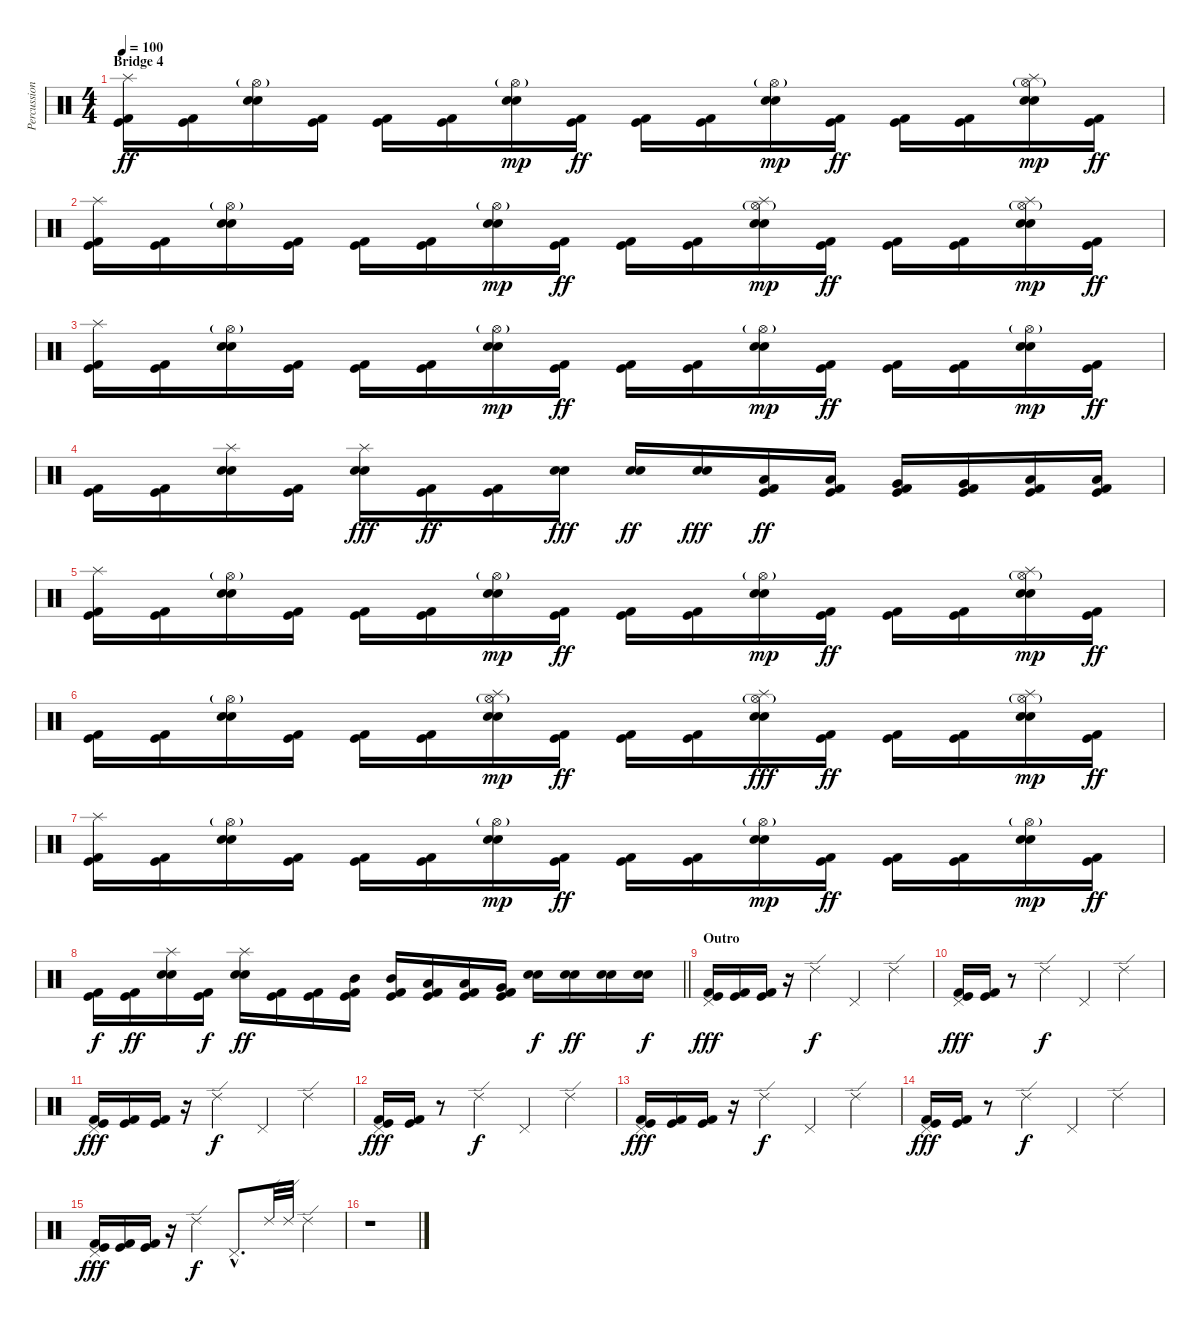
\track ("Percussion" "Percussion") {instrument percussion}
\staff {score}
\articulation defaults
\ts (4 4)
\section ("" "Bridge 4")
\tempo 100
\clef neutral
\ks c
("Splash (hit)" "Kick (hit)" "Kick (hit) 2").16{dy ff} ("Kick (hit)" "Kick (hit) 2").16 ("Hi-Hat (open)"{g} "Electric Snare (hit)" "Snare (hit) 2").16 ("Kick (hit)" "Kick (hit) 2").16 ("Kick (hit)" "Kick (hit) 2").16 ("Kick (hit)" "Kick (hit) 2").16 ("Hi-Hat (open)"{g} "Electric Snare (hit)" "Snare (hit) 2").16{dy mp} ("Kick (hit)" "Kick (hit) 2").16{dy ff} ("Kick (hit)" "Kick (hit) 2").16 ("Kick (hit)" "Kick (hit) 2").16 ("Hi-Hat (open)"{g} "Electric Snare (hit)" "Snare (hit) 2").16{dy mp} ("Kick (hit)" "Kick (hit) 2").16{dy ff} ("Kick (hit)" "Kick (hit) 2").16 ("Kick (hit)" "Kick (hit) 2").16 ("Hi-Hat (open)"{g} "Electric Snare (hit)" "Snare (hit) 2" "Splash (hit)").16{dy mp} ("Kick (hit)" "Kick (hit) 2").16{dy ff} |
("Splash (hit)" "Kick (hit)" "Kick (hit) 2").16 ("Kick (hit)" "Kick (hit) 2").16 ("Hi-Hat (open)"{g} "Electric Snare (hit)" "Snare (hit) 2").16 ("Kick (hit)" "Kick (hit) 2").16 ("Kick (hit)" "Kick (hit) 2").16 ("Kick (hit)" "Kick (hit) 2").16 ("Hi-Hat (open)"{g} "Electric Snare (hit)" "Snare (hit) 2").16{dy mp} ("Kick (hit)" "Kick (hit) 2").16{dy ff} ("Kick (hit)" "Kick (hit) 2").16 ("Kick (hit)" "Kick (hit) 2").16 ("Hi-Hat (open)"{g} "Electric Snare (hit)" "Snare (hit) 2" "Splash (hit)").16{dy mp} ("Kick (hit)" "Kick (hit) 2").16{dy ff} ("Kick (hit)" "Kick (hit) 2").16 ("Kick (hit)" "Kick (hit) 2").16 ("Hi-Hat (open)"{g} "Electric Snare (hit)" "Snare (hit) 2" "Splash (hit)").16{dy mp} ("Kick (hit)" "Kick (hit) 2").16{dy ff} |
("Splash (hit)" "Kick (hit)" "Kick (hit) 2").16 ("Kick (hit)" "Kick (hit) 2").16 ("Hi-Hat (open)"{g} "Electric Snare (hit)" "Snare (hit) 2").16 ("Kick (hit)" "Kick (hit) 2").16 ("Kick (hit)" "Kick (hit) 2").16 ("Kick (hit)" "Kick (hit) 2").16 ("Hi-Hat (open)"{g} "Electric Snare (hit)" "Snare (hit) 2").16{dy mp} ("Kick (hit)" "Kick (hit) 2").16{dy ff} ("Kick (hit)" "Kick (hit) 2").16 ("Kick (hit)" "Kick (hit) 2").16 ("Hi-Hat (open)"{g} "Electric Snare (hit)" "Snare (hit) 2").16{dy mp} ("Kick (hit)" "Kick (hit) 2").16{dy ff} ("Kick (hit)" "Kick (hit) 2").16 ("Kick (hit)" "Kick (hit) 2").16 ("Hi-Hat (open)"{g} "Electric Snare (hit)" "Snare (hit) 2").16{dy mp} ("Kick (hit)" "Kick (hit) 2").16{dy ff} |
("Kick (hit)" "Kick (hit) 2").16 ("Kick (hit)" "Kick (hit) 2").16 ("Splash (hit)" "Electric Snare (hit)" "Snare (hit) 2").16 ("Kick (hit)" "Kick (hit) 2").16 ("Splash (hit)" "Electric Snare (hit)" "Snare (hit) 2").16{dy fff} ("Kick (hit)" "Kick (hit) 2").16{dy ff} ("Kick (hit)" "Kick (hit) 2").16 ("Electric Snare (hit)" "Snare (hit) 2").16{dy fff} ("Electric Snare (hit)" "Snare (hit) 2").16{dy ff} ("Electric Snare (hit)" "Snare (hit) 2").16{dy fff} ("Low Tom (hit)" "Kick (hit)" "Kick (hit) 2").16{dy ff} ("Low Tom (hit)" "Kick (hit)" "Kick (hit) 2").16 ("Very Low Tom (hit)" "Kick (hit)" "Kick (hit) 2").16 ("Very Low Tom (hit)" "Kick (hit)" "Kick (hit) 2").16 ("Low Floor Tom (hit)" "Kick (hit)" "Kick (hit) 2").16 ("Low Floor Tom (hit)" "Kick (hit)" "Kick (hit) 2").16 |
("Splash (hit)" "Kick (hit)" "Kick (hit) 2").16 ("Kick (hit)" "Kick (hit) 2").16 ("Hi-Hat (open)"{g} "Electric Snare (hit)" "Snare (hit) 2").16 ("Kick (hit)" "Kick (hit) 2").16 ("Kick (hit)" "Kick (hit) 2").16 ("Kick (hit)" "Kick (hit) 2").16 ("Hi-Hat (open)"{g} "Electric Snare (hit)" "Snare (hit) 2").16{dy mp} ("Kick (hit)" "Kick (hit) 2").16{dy ff} ("Kick (hit)" "Kick (hit) 2").16 ("Kick (hit)" "Kick (hit) 2").16 ("Hi-Hat (open)"{g} "Electric Snare (hit)" "Snare (hit) 2").16{dy mp} ("Kick (hit)" "Kick (hit) 2").16{dy ff} ("Kick (hit)" "Kick (hit) 2").16 ("Kick (hit)" "Kick (hit) 2").16 ("Hi-Hat (open)"{g} "Electric Snare (hit)" "Snare (hit) 2" "Splash (hit)").16{dy mp} ("Kick (hit)" "Kick (hit) 2").16{dy ff} |
("Kick (hit)" "Kick (hit) 2").16 ("Kick (hit)" "Kick (hit) 2").16 ("Hi-Hat (open)"{g} "Electric Snare (hit)" "Snare (hit) 2").16 ("Kick (hit)" "Kick (hit) 2").16 ("Kick (hit)" "Kick (hit) 2").16 ("Kick (hit)" "Kick (hit) 2").16 ("Hi-Hat (open)"{g} "Electric Snare (hit)" "Snare (hit) 2" "Splash (hit)").16{dy mp} ("Kick (hit)" "Kick (hit) 2").16{dy ff} ("Kick (hit)" "Kick (hit) 2").16 ("Kick (hit)" "Kick (hit) 2").16 ("Hi-Hat (open)"{g} "Electric Snare (hit)" "Snare (hit) 2" "Splash (hit)").16{dy fff} ("Kick (hit)" "Kick (hit) 2").16{dy ff} ("Kick (hit)" "Kick (hit) 2").16 ("Kick (hit)" "Kick (hit) 2").16 ("Hi-Hat (open)"{g} "Electric Snare (hit)" "Snare (hit) 2" "Splash (hit)").16{dy mp} ("Kick (hit)" "Kick (hit) 2").16{dy ff} |
("Splash (hit)" "Kick (hit)" "Kick (hit) 2").16 ("Kick (hit)" "Kick (hit) 2").16 ("Hi-Hat (open)"{g} "Electric Snare (hit)" "Snare (hit) 2").16 ("Kick (hit)" "Kick (hit) 2").16 ("Kick (hit)" "Kick (hit) 2").16 ("Kick (hit)" "Kick (hit) 2").16 ("Hi-Hat (open)"{g} "Electric Snare (hit)" "Snare (hit) 2").16{dy mp} ("Kick (hit)" "Kick (hit) 2").16{dy ff} ("Kick (hit)" "Kick (hit) 2").16 ("Kick (hit)" "Kick (hit) 2").16 ("Hi-Hat (open)"{g} "Electric Snare (hit)" "Snare (hit) 2").16{dy mp} ("Kick (hit)" "Kick (hit) 2").16{dy ff} ("Kick (hit)" "Kick (hit) 2").16 ("Kick (hit)" "Kick (hit) 2").16 ("Hi-Hat (open)"{g} "Electric Snare (hit)" "Snare (hit) 2").16{dy mp} ("Kick (hit)" "Kick (hit) 2").16{dy ff} |
\barLineRight lightlight
("Kick (hit)" "Kick (hit) 2").16{dy f} ("Kick (hit)" "Kick (hit) 2").16{dy ff} ("Splash (hit)" "Electric Snare (hit)" "Snare (hit) 2").16 ("Kick (hit)" "Kick (hit) 2").16{dy f} ("Splash (hit)" "Electric Snare (hit)" "Snare (hit) 2").16{dy ff} ("Kick (hit)" "Kick (hit) 2").16 ("Kick (hit)" "Kick (hit) 2").16 ("Mid Tom (hit)" "Kick (hit)" "Kick (hit) 2").16 ("Mid Tom (hit)" "Kick (hit)" "Kick (hit) 2").16 ("Low Tom (hit)" "Kick (hit)" "Kick (hit) 2").16 ("Low Tom (hit)" "Kick (hit)" "Kick (hit) 2").16 ("Very Low Tom (hit)" "Kick (hit)" "Kick (hit) 2").16 ("Electric Snare (hit)" "Snare (hit) 2").16{dy f} ("Electric Snare (hit)" "Snare (hit) 2").16{dy ff} ("Electric Snare (hit)" "Snare (hit) 2").16 ("Electric Snare (hit)" "Snare (hit) 2").16{dy f} |
\section ("" "Outro")
("Pedal Hi-Hat (hit)" "Kick (hit)" "Kick (hit) 2").16{dy fff} ("Kick (hit)" "Kick (hit) 2").16 ("Kick (hit)" "Kick (hit) 2").16 r.16 "Ride (edge) 2".4{dy f} "Pedal Hi-Hat (hit)".4 "Ride (edge) 2".4 |
("Pedal Hi-Hat (hit)" "Kick (hit)" "Kick (hit) 2").16{dy fff} ("Kick (hit)" "Kick (hit) 2").16 r.8 "Ride (edge) 2".4{dy f} "Pedal Hi-Hat (hit)".4 "Ride (edge) 2".4 |
("Pedal Hi-Hat (hit)" "Kick (hit)" "Kick (hit) 2").16{dy fff} ("Kick (hit)" "Kick (hit) 2").16 ("Kick (hit)" "Kick (hit) 2").16 r.16 "Ride (edge) 2".4{dy f} "Pedal Hi-Hat (hit)".4 "Ride (edge) 2".4 |
("Pedal Hi-Hat (hit)" "Kick (hit)" "Kick (hit) 2").16{dy fff} ("Kick (hit)" "Kick (hit) 2").16 r.8 "Ride (edge) 2".4{dy f} "Pedal Hi-Hat (hit)".4 "Ride (edge) 2".4 |
("Pedal Hi-Hat (hit)" "Kick (hit)" "Kick (hit) 2").16{dy fff} ("Kick (hit)" "Kick (hit) 2").16 ("Kick (hit)" "Kick (hit) 2").16 r.16 "Ride (edge) 2".4{dy f} "Pedal Hi-Hat (hit)".4 "Ride (edge) 2".4 |
("Pedal Hi-Hat (hit)" "Kick (hit)" "Kick (hit) 2").16{dy fff} ("Kick (hit)" "Kick (hit) 2").16 r.8 "Ride (edge) 2".4{dy f} "Pedal Hi-Hat (hit)".4 "Ride (edge) 2".4 |
("Pedal Hi-Hat (hit)" "Kick (hit)" "Kick (hit) 2").16{dy fff} ("Kick (hit)" "Kick (hit) 2").16 ("Kick (hit)" "Kick (hit) 2").16 r.16 "Ride (edge) 2".4{dy f} "Pedal Hi-Hat (hit)"{hac}.8{d} "Ride (edge) 2".32 "Ride (edge) 2".32 "Ride (edge) 2".4 |
r.1
